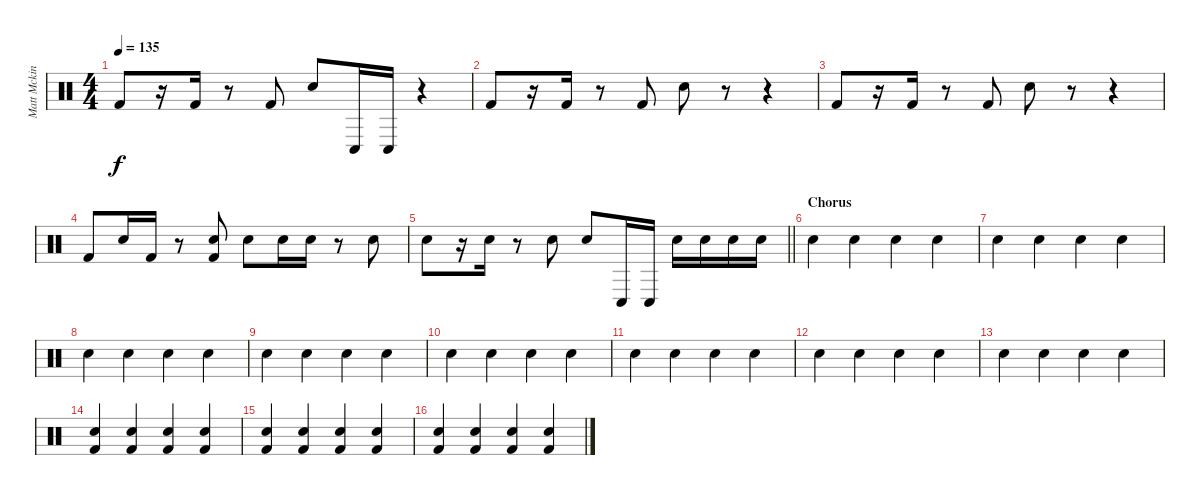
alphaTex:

\track ("Matt Mckinley (Drums)" "Matt Mckin") {instrument percussion}
\staff {score}
\articulation defaults
\ts (4 4)
\tempo 135
\clef neutral
\ks c "Kick (hit) 2".8{dy f}
r.16 "Kick (hit) 2".16 r.8 "Kick (hit) 2".8 "Electric Snare (hit)".8 "Conga low (hit)".16 "Conga low (hit)".16 r.4 |
"Kick (hit) 2".8 r.16 "Kick (hit) 2".16 r.8 "Kick (hit) 2".8 "Electric Snare (hit)".8 r.8 r.4 |
"Kick (hit) 2".8 r.16 "Kick (hit) 2".16 r.8 "Kick (hit) 2".8 "Electric Snare (hit)".8 r.8 r.4 |
"Kick (hit) 2".8 "Electric Snare (hit)".16 "Kick (hit) 2".16 r.8 ("Electric Snare (hit)" "Kick (hit) 2").8 "Electric Snare (hit)".8 "Electric Snare (hit)".16 "Electric Snare (hit)".16 r.8 "Electric Snare (hit)".8 |
\barLineRight lightlight "Electric Snare (hit)".8
r.16 "Electric Snare (hit)".16 r.8 "Electric Snare (hit)".8 "Electric Snare (hit)".8 "Conga low (hit)".16 "Conga low (hit)".16 "Electric Snare (hit)".16 "Electric Snare (hit)".16 "Electric Snare (hit)".16 "Electric Snare (hit)".16 |
\section ("" "Chorus")
"Electric Snare (hit)".4 "Electric Snare (hit)".4 "Electric Snare (hit)".4 "Electric Snare (hit)".4 |
"Electric Snare (hit)".4 "Electric Snare (hit)".4 "Electric Snare (hit)".4 "Electric Snare (hit)".4 |
"Electric Snare (hit)".4 "Electric Snare (hit)".4 "Electric Snare (hit)".4 "Electric Snare (hit)".4 |
"Electric Snare (hit)".4 "Electric Snare (hit)".4 "Electric Snare (hit)".4 "Electric Snare (hit)".4 |
"Electric Snare (hit)".4 "Electric Snare (hit)".4 "Electric Snare (hit)".4 "Electric Snare (hit)".4 |
"Electric Snare (hit)".4 "Electric Snare (hit)".4 "Electric Snare (hit)".4 "Electric Snare (hit)".4 |
"Electric Snare (hit)".4 "Electric Snare (hit)".4 "Electric Snare (hit)".4 "Electric Snare (hit)".4 |
"Electric Snare (hit)".4 "Electric Snare (hit)".4 "Electric Snare (hit)".4 "Electric Snare (hit)".4 |
("Electric Snare (hit)" "Kick (hit) 2").4 ("Electric Snare (hit)" "Kick (hit) 2").4 ("Electric Snare (hit)" "Kick (hit) 2").4 ("Electric Snare (hit)" "Kick (hit) 2").4 |
("Electric Snare (hit)" "Kick (hit) 2").4 ("Electric Snare (hit)" "Kick (hit) 2").4 ("Electric Snare (hit)" "Kick (hit) 2").4 ("Electric Snare (hit)" "Kick (hit) 2").4 |
("Electric Snare (hit)" "Kick (hit) 2").4 ("Electric Snare (hit)" "Kick (hit) 2").4 ("Electric Snare (hit)" "Kick (hit) 2").4 ("Electric Snare (hit)" "Kick (hit) 2").4
